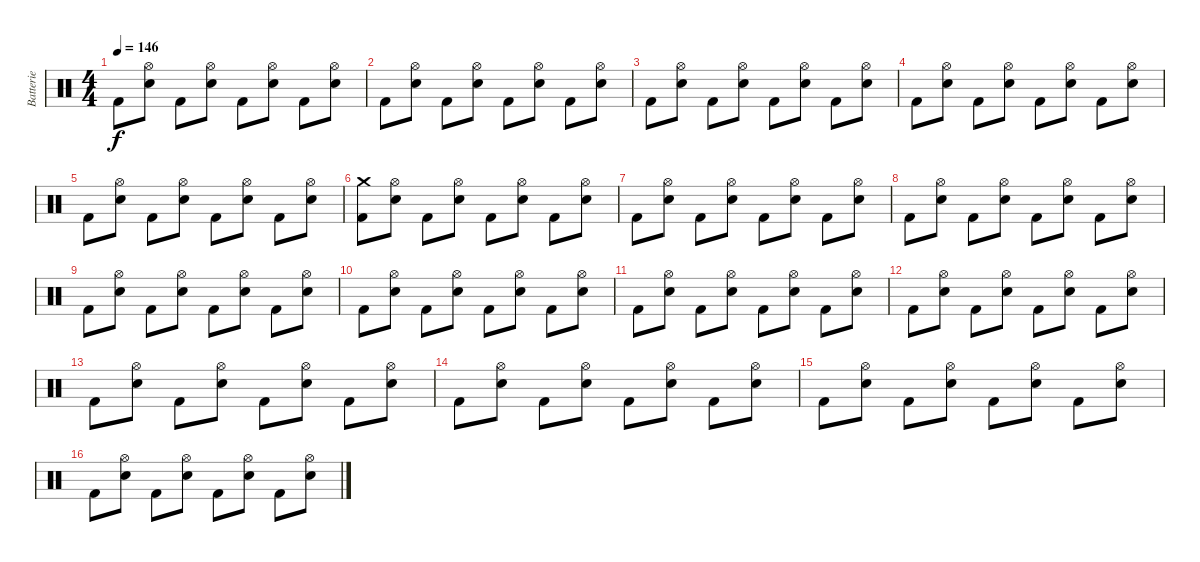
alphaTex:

\track ("Batterie" "Batterie") {instrument percussion}
\staff {score}
\articulation defaults
\ts (4 4)
\tempo 146
\clef neutral
\ks c "Kick (hit) 2".8{dy f}
("Electric Snare (hit)" "Hi-Hat (open)").8 "Kick (hit) 2".8 ("Electric Snare (hit)" "Hi-Hat (open)").8 "Kick (hit) 2".8 ("Electric Snare (hit)" "Hi-Hat (open)").8 "Kick (hit) 2".8 ("Electric Snare (hit)" "Hi-Hat (open)").8 |
"Kick (hit) 2".8 ("Electric Snare (hit)" "Hi-Hat (open)").8 "Kick (hit) 2".8 ("Electric Snare (hit)" "Hi-Hat (open)").8 "Kick (hit) 2".8 ("Electric Snare (hit)" "Hi-Hat (open)").8 "Kick (hit) 2".8 ("Electric Snare (hit)" "Hi-Hat (open)").8 |
"Kick (hit) 2".8 ("Electric Snare (hit)" "Hi-Hat (open)").8 "Kick (hit) 2".8 ("Electric Snare (hit)" "Hi-Hat (open)").8 "Kick (hit) 2".8 ("Electric Snare (hit)" "Hi-Hat (open)").8 "Kick (hit) 2".8 ("Electric Snare (hit)" "Hi-Hat (open)").8 |
"Kick (hit) 2".8 ("Electric Snare (hit)" "Hi-Hat (open)").8 "Kick (hit) 2".8 ("Electric Snare (hit)" "Hi-Hat (open)").8 "Kick (hit) 2".8 ("Electric Snare (hit)" "Hi-Hat (open)").8 "Kick (hit) 2".8 ("Electric Snare (hit)" "Hi-Hat (open)").8 |
"Kick (hit) 2".8 ("Electric Snare (hit)" "Hi-Hat (open)").8 "Kick (hit) 2".8 ("Electric Snare (hit)" "Hi-Hat (open)").8 "Kick (hit) 2".8 ("Electric Snare (hit)" "Hi-Hat (open)").8 "Kick (hit) 2".8 ("Electric Snare (hit)" "Hi-Hat (open)").8 |
("Kick (hit) 2" "Crash medium (hit)").8 ("Electric Snare (hit)" "Hi-Hat (open)").8 "Kick (hit) 2".8 ("Electric Snare (hit)" "Hi-Hat (open)").8 "Kick (hit) 2".8 ("Electric Snare (hit)" "Hi-Hat (open)").8 "Kick (hit) 2".8 ("Electric Snare (hit)" "Hi-Hat (open)").8 |
"Kick (hit) 2".8 ("Electric Snare (hit)" "Hi-Hat (open)").8 "Kick (hit) 2".8 ("Electric Snare (hit)" "Hi-Hat (open)").8 "Kick (hit) 2".8 ("Electric Snare (hit)" "Hi-Hat (open)").8 "Kick (hit) 2".8 ("Electric Snare (hit)" "Hi-Hat (open)").8 |
"Kick (hit) 2".8 ("Electric Snare (hit)" "Hi-Hat (open)").8 "Kick (hit) 2".8 ("Electric Snare (hit)" "Hi-Hat (open)").8 "Kick (hit) 2".8 ("Electric Snare (hit)" "Hi-Hat (open)").8 "Kick (hit) 2".8 ("Electric Snare (hit)" "Hi-Hat (open)").8 |
"Kick (hit) 2".8 ("Electric Snare (hit)" "Hi-Hat (open)").8 "Kick (hit) 2".8 ("Electric Snare (hit)" "Hi-Hat (open)").8 "Kick (hit) 2".8 ("Electric Snare (hit)" "Hi-Hat (open)").8 "Kick (hit) 2".8 ("Electric Snare (hit)" "Hi-Hat (open)").8 |
"Kick (hit) 2".8 ("Electric Snare (hit)" "Hi-Hat (open)").8 "Kick (hit) 2".8 ("Electric Snare (hit)" "Hi-Hat (open)").8 "Kick (hit) 2".8 ("Electric Snare (hit)" "Hi-Hat (open)").8 "Kick (hit) 2".8 ("Electric Snare (hit)" "Hi-Hat (open)").8 |
"Kick (hit) 2".8 ("Electric Snare (hit)" "Hi-Hat (open)").8 "Kick (hit) 2".8 ("Electric Snare (hit)" "Hi-Hat (open)").8 "Kick (hit) 2".8 ("Electric Snare (hit)" "Hi-Hat (open)").8 "Kick (hit) 2".8 ("Electric Snare (hit)" "Hi-Hat (open)").8 |
"Kick (hit) 2".8 ("Electric Snare (hit)" "Hi-Hat (open)").8 "Kick (hit) 2".8 ("Electric Snare (hit)" "Hi-Hat (open)").8 "Kick (hit) 2".8 ("Electric Snare (hit)" "Hi-Hat (open)").8 "Kick (hit) 2".8 ("Electric Snare (hit)" "Hi-Hat (open)").8 |
"Kick (hit) 2".8 ("Electric Snare (hit)" "Hi-Hat (open)").8 "Kick (hit) 2".8 ("Electric Snare (hit)" "Hi-Hat (open)").8 "Kick (hit) 2".8 ("Electric Snare (hit)" "Hi-Hat (open)").8 "Kick (hit) 2".8 ("Electric Snare (hit)" "Hi-Hat (open)").8 |
"Kick (hit) 2".8 ("Electric Snare (hit)" "Hi-Hat (open)").8 "Kick (hit) 2".8 ("Electric Snare (hit)" "Hi-Hat (open)").8 "Kick (hit) 2".8 ("Electric Snare (hit)" "Hi-Hat (open)").8 "Kick (hit) 2".8 ("Electric Snare (hit)" "Hi-Hat (open)").8 |
"Kick (hit) 2".8 ("Electric Snare (hit)" "Hi-Hat (open)").8 "Kick (hit) 2".8 ("Electric Snare (hit)" "Hi-Hat (open)").8 "Kick (hit) 2".8 ("Electric Snare (hit)" "Hi-Hat (open)").8 "Kick (hit) 2".8 ("Electric Snare (hit)" "Hi-Hat (open)").8 |
"Kick (hit) 2".8 ("Electric Snare (hit)" "Hi-Hat (open)").8 "Kick (hit) 2".8 ("Electric Snare (hit)" "Hi-Hat (open)").8 "Kick (hit) 2".8 ("Electric Snare (hit)" "Hi-Hat (open)").8 "Kick (hit) 2".8 ("Electric Snare (hit)" "Hi-Hat (open)").8
